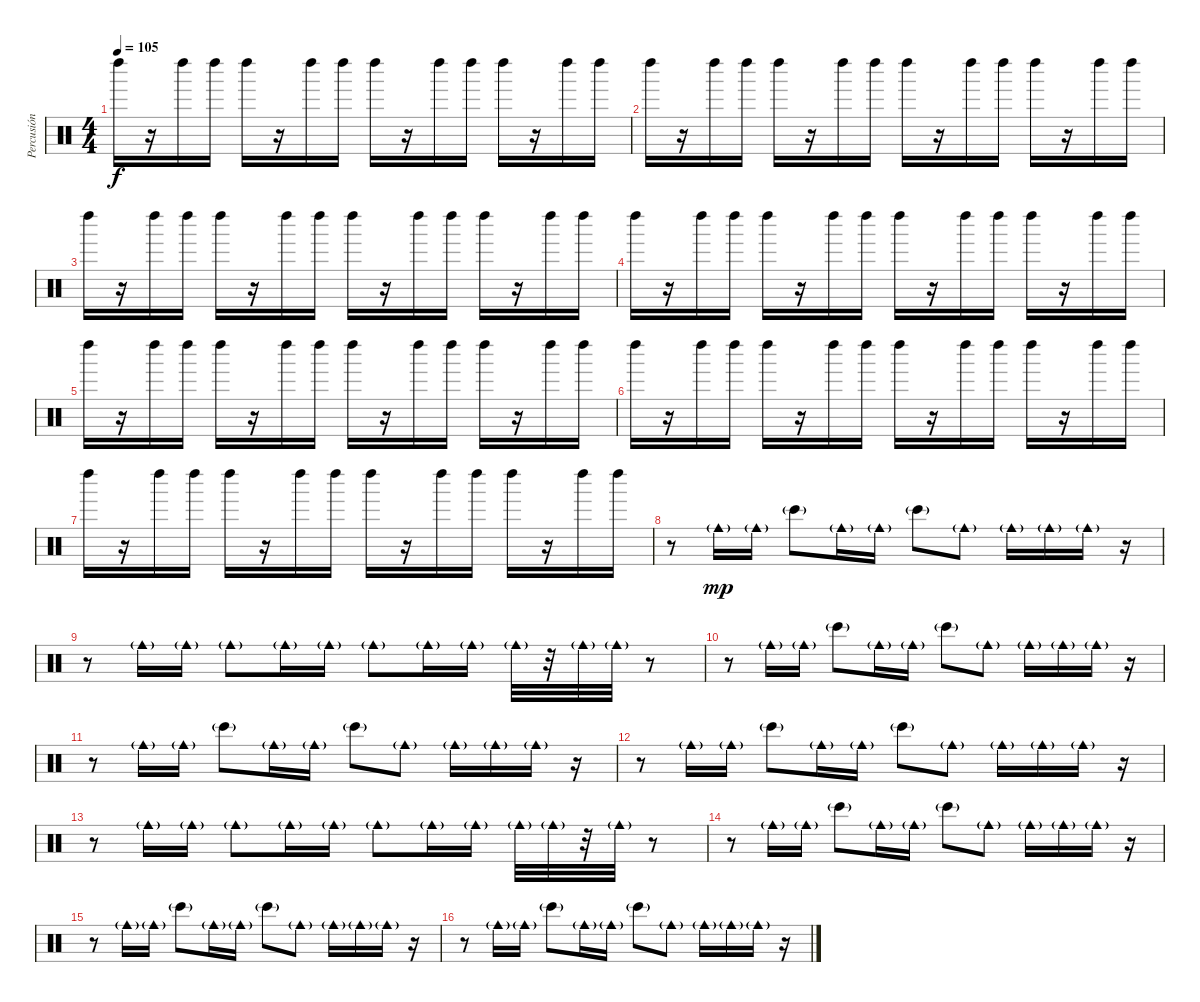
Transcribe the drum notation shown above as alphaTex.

\track ("Percusión" "Percusión") {instrument percussion}
\staff {score}
\articulation defaults
\ts (4 4)
\tempo 105
\clef neutral
\ks c "Left Maraca (hit)".16{dy f}
r.16 "Left Maraca (hit)".16 "Left Maraca (hit)".16 "Left Maraca (hit)".16 r.16 "Left Maraca (hit)".16 "Left Maraca (hit)".16 "Left Maraca (hit)".16 r.16 "Left Maraca (hit)".16 "Left Maraca (hit)".16 "Left Maraca (hit)".16 r.16 "Left Maraca (hit)".16 "Left Maraca (hit)".16 |
"Left Maraca (hit)".16 r.16 "Left Maraca (hit)".16 "Left Maraca (hit)".16 "Left Maraca (hit)".16 r.16 "Left Maraca (hit)".16 "Left Maraca (hit)".16 "Left Maraca (hit)".16 r.16 "Left Maraca (hit)".16 "Left Maraca (hit)".16 "Left Maraca (hit)".16 r.16 "Left Maraca (hit)".16 "Left Maraca (hit)".16 |
"Left Maraca (hit)".16 r.16 "Left Maraca (hit)".16 "Left Maraca (hit)".16 "Left Maraca (hit)".16 r.16 "Left Maraca (hit)".16 "Left Maraca (hit)".16 "Left Maraca (hit)".16 r.16 "Left Maraca (hit)".16 "Left Maraca (hit)".16 "Left Maraca (hit)".16 r.16 "Left Maraca (hit)".16 "Left Maraca (hit)".16 |
"Left Maraca (hit)".16 r.16 "Left Maraca (hit)".16 "Left Maraca (hit)".16 "Left Maraca (hit)".16 r.16 "Left Maraca (hit)".16 "Left Maraca (hit)".16 "Left Maraca (hit)".16 r.16 "Left Maraca (hit)".16 "Left Maraca (hit)".16 "Left Maraca (hit)".16 r.16 "Left Maraca (hit)".16 "Left Maraca (hit)".16 |
"Left Maraca (hit)".16 r.16 "Left Maraca (hit)".16 "Left Maraca (hit)".16 "Left Maraca (hit)".16 r.16 "Left Maraca (hit)".16 "Left Maraca (hit)".16 "Left Maraca (hit)".16 r.16 "Left Maraca (hit)".16 "Left Maraca (hit)".16 "Left Maraca (hit)".16 r.16 "Left Maraca (hit)".16 "Left Maraca (hit)".16 |
"Left Maraca (hit)".16 r.16 "Left Maraca (hit)".16 "Left Maraca (hit)".16 "Left Maraca (hit)".16 r.16 "Left Maraca (hit)".16 "Left Maraca (hit)".16 "Left Maraca (hit)".16 r.16 "Left Maraca (hit)".16 "Left Maraca (hit)".16 "Left Maraca (hit)".16 r.16 "Left Maraca (hit)".16 "Left Maraca (hit)".16 |
"Left Maraca (hit)".16 r.16 "Left Maraca (hit)".16 "Left Maraca (hit)".16 "Left Maraca (hit)".16 r.16 "Left Maraca (hit)".16 "Left Maraca (hit)".16 "Left Maraca (hit)".16 r.16 "Left Maraca (hit)".16 "Left Maraca (hit)".16 "Left Maraca (hit)".16 r.16 "Left Maraca (hit)".16 "Left Maraca (hit)".16 |
r.8 "Cowbell medium (hit)"{g}.16{dy mp} "Cowbell medium (hit)"{g}.16 "Bongo High (hit)"{g}.8 "Cowbell medium (hit)"{g}.16 "Cowbell medium (hit)"{g}.16 "Bongo High (hit)"{g}.8 "Cowbell medium (hit)"{g}.8 "Cowbell medium (hit)"{g}.16 "Cowbell medium (hit)"{g}.16 "Cowbell medium (hit)"{g}.16 r.16 |
r.8 "Cowbell medium (hit)"{g}.16 "Cowbell medium (hit)"{g}.16 "Cowbell medium (hit)"{g}.8 "Cowbell medium (hit)"{g}.16 "Cowbell medium (hit)"{g}.16 "Cowbell medium (hit)"{g}.8 "Cowbell medium (hit)"{g}.16 "Cowbell medium (hit)"{g}.16 "Cowbell medium (hit)"{g}.32 r.32 "Cowbell medium (hit)"{g}.32 "Cowbell medium (hit)"{g}.32 r.8 |
r.8 "Cowbell medium (hit)"{g}.16 "Cowbell medium (hit)"{g}.16 "Bongo High (hit)"{g}.8 "Cowbell medium (hit)"{g}.16 "Cowbell medium (hit)"{g}.16 "Bongo High (hit)"{g}.8 "Cowbell medium (hit)"{g}.8 "Cowbell medium (hit)"{g}.16 "Cowbell medium (hit)"{g}.16 "Cowbell medium (hit)"{g}.16 r.16 |
r.8 "Cowbell medium (hit)"{g}.16 "Cowbell medium (hit)"{g}.16 "Bongo High (hit)"{g}.8 "Cowbell medium (hit)"{g}.16 "Cowbell medium (hit)"{g}.16 "Bongo High (hit)"{g}.8 "Cowbell medium (hit)"{g}.8 "Cowbell medium (hit)"{g}.16 "Cowbell medium (hit)"{g}.16 "Cowbell medium (hit)"{g}.16 r.16 |
r.8 "Cowbell medium (hit)"{g}.16 "Cowbell medium (hit)"{g}.16 "Bongo High (hit)"{g}.8 "Cowbell medium (hit)"{g}.16 "Cowbell medium (hit)"{g}.16 "Bongo High (hit)"{g}.8 "Cowbell medium (hit)"{g}.8 "Cowbell medium (hit)"{g}.16 "Cowbell medium (hit)"{g}.16 "Cowbell medium (hit)"{g}.16 r.16 |
r.8 "Cowbell medium (hit)"{g}.16 "Cowbell medium (hit)"{g}.16 "Cowbell medium (hit)"{g}.8 "Cowbell medium (hit)"{g}.16 "Cowbell medium (hit)"{g}.16 "Cowbell medium (hit)"{g}.8 "Cowbell medium (hit)"{g}.16 "Cowbell medium (hit)"{g}.16 "Cowbell medium (hit)"{g}.32 "Cowbell medium (hit)"{g}.32 r.32 "Cowbell medium (hit)"{g}.32 r.8 |
r.8 "Cowbell medium (hit)"{g}.16 "Cowbell medium (hit)"{g}.16 "Bongo High (hit)"{g}.8 "Cowbell medium (hit)"{g}.16 "Cowbell medium (hit)"{g}.16 "Bongo High (hit)"{g}.8 "Cowbell medium (hit)"{g}.8 "Cowbell medium (hit)"{g}.16 "Cowbell medium (hit)"{g}.16 "Cowbell medium (hit)"{g}.16 r.16 |
r.8 "Cowbell medium (hit)"{g}.16 "Cowbell medium (hit)"{g}.16 "Bongo High (hit)"{g}.8 "Cowbell medium (hit)"{g}.16 "Cowbell medium (hit)"{g}.16 "Bongo High (hit)"{g}.8 "Cowbell medium (hit)"{g}.8 "Cowbell medium (hit)"{g}.16 "Cowbell medium (hit)"{g}.16 "Cowbell medium (hit)"{g}.16 r.16 |
r.8 "Cowbell medium (hit)"{g}.16 "Cowbell medium (hit)"{g}.16 "Bongo High (hit)"{g}.8 "Cowbell medium (hit)"{g}.16 "Cowbell medium (hit)"{g}.16 "Bongo High (hit)"{g}.8 "Cowbell medium (hit)"{g}.8 "Cowbell medium (hit)"{g}.16 "Cowbell medium (hit)"{g}.16 "Cowbell medium (hit)"{g}.16 r.16
